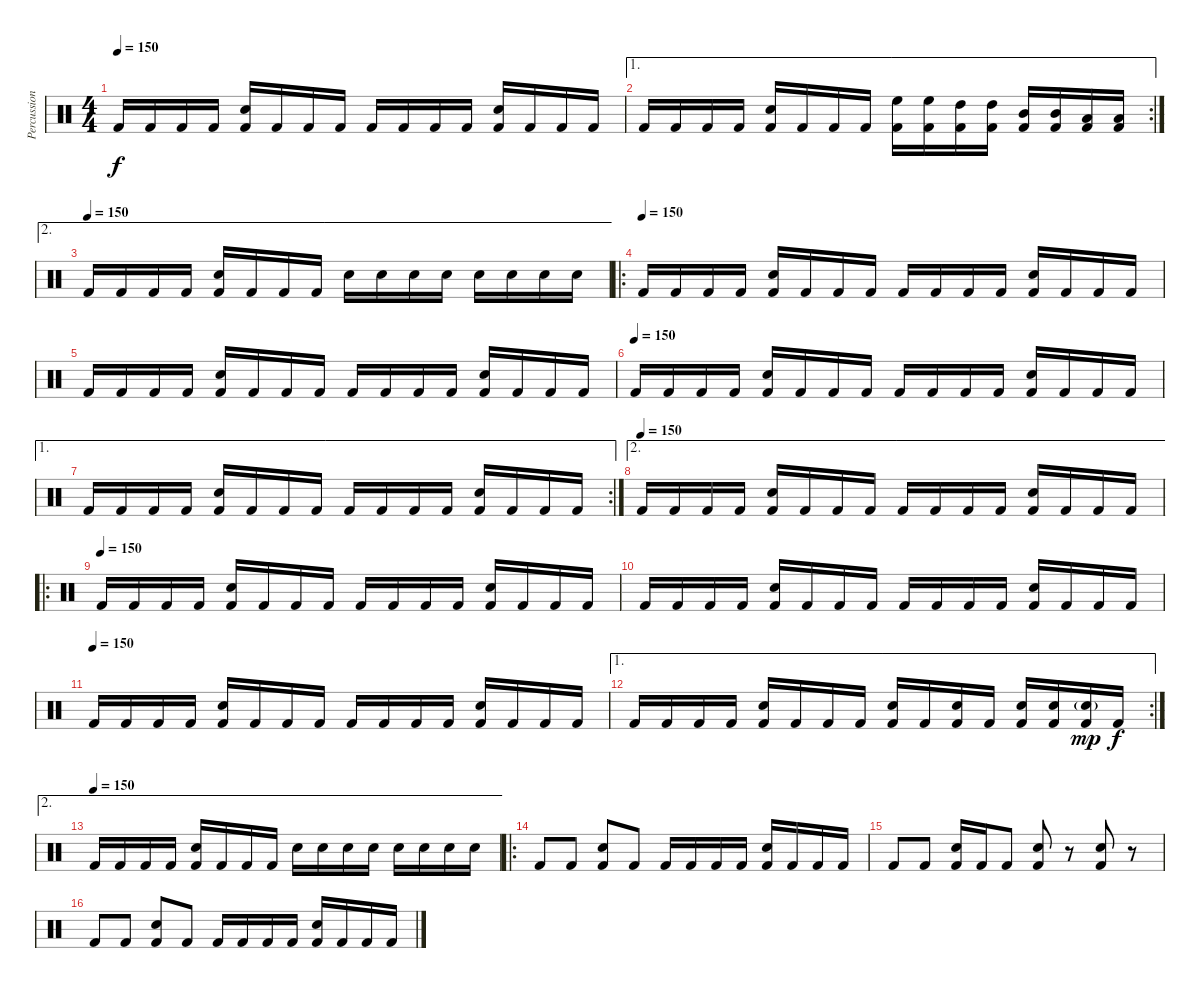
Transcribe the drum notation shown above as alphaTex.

\track ("Percussion" "Percussion") {instrument percussion}
\staff {score}
\articulation defaults
\ts (4 4)
\tempo 150
\clef neutral
\ks c "Kick (hit) 2".16{dy f} "Kick (hit) 2".16 "Kick (hit) 2".16 "Kick (hit) 2".16
("Snare (hit) 2" "Kick (hit) 2").16 "Kick (hit) 2".16 "Kick (hit) 2".16 "Kick (hit) 2".16 "Kick (hit) 2".16 "Kick (hit) 2".16 "Kick (hit) 2".16 "Kick (hit) 2".16 ("Snare (hit) 2" "Kick (hit) 2").16 "Kick (hit) 2".16 "Kick (hit) 2".16 "Kick (hit) 2".16 |
\ae 1
\rc 2 "Kick (hit) 2".16 "Kick (hit) 2".16 "Kick (hit) 2".16 "Kick (hit) 2".16
("Snare (hit) 2" "Kick (hit) 2").16 "Kick (hit) 2".16 "Kick (hit) 2".16 "Kick (hit) 2".16 ("High Floor Tom (hit)" "Kick (hit) 2").16 ("High Floor Tom (hit)" "Kick (hit) 2").16 ("High Tom (hit)" "Kick (hit) 2").16 ("High Tom (hit)" "Kick (hit) 2").16 ("Mid Tom (hit)" "Kick (hit) 2").16 ("Mid Tom (hit)" "Kick (hit) 2").16 ("Low Tom (hit)" "Kick (hit) 2").16 ("Low Tom (hit)" "Kick (hit) 2").16 |
\ae 2
\tempo (150)
"Kick (hit) 2".16 "Kick (hit) 2".16 "Kick (hit) 2".16 "Kick (hit) 2".16 ("Snare (hit) 2" "Kick (hit) 2").16 "Kick (hit) 2".16 "Kick (hit) 2".16 "Kick (hit) 2".16 "Snare (hit) 2".16 "Snare (hit) 2".16 "Snare (hit) 2".16 "Snare (hit) 2".16 "Snare (hit) 2".16 "Snare (hit) 2".16 "Snare (hit) 2".16 "Snare (hit) 2".16 |
\ro
\tempo (150)
"Kick (hit) 2".16 "Kick (hit) 2".16 "Kick (hit) 2".16 "Kick (hit) 2".16 ("Snare (hit) 2" "Kick (hit) 2").16 "Kick (hit) 2".16 "Kick (hit) 2".16 "Kick (hit) 2".16 "Kick (hit) 2".16 "Kick (hit) 2".16 "Kick (hit) 2".16 "Kick (hit) 2".16 ("Snare (hit) 2" "Kick (hit) 2").16 "Kick (hit) 2".16 "Kick (hit) 2".16 "Kick (hit) 2".16 |
"Kick (hit) 2".16 "Kick (hit) 2".16 "Kick (hit) 2".16 "Kick (hit) 2".16 ("Snare (hit) 2" "Kick (hit) 2").16 "Kick (hit) 2".16 "Kick (hit) 2".16 "Kick (hit) 2".16 "Kick (hit) 2".16 "Kick (hit) 2".16 "Kick (hit) 2".16 "Kick (hit) 2".16 ("Snare (hit) 2" "Kick (hit) 2").16 "Kick (hit) 2".16 "Kick (hit) 2".16 "Kick (hit) 2".16 |
\tempo (150)
"Kick (hit) 2".16 "Kick (hit) 2".16 "Kick (hit) 2".16 "Kick (hit) 2".16 ("Snare (hit) 2" "Kick (hit) 2").16 "Kick (hit) 2".16 "Kick (hit) 2".16 "Kick (hit) 2".16 "Kick (hit) 2".16 "Kick (hit) 2".16 "Kick (hit) 2".16 "Kick (hit) 2".16 ("Snare (hit) 2" "Kick (hit) 2").16 "Kick (hit) 2".16 "Kick (hit) 2".16 "Kick (hit) 2".16 |
\ae 1
\rc 2 "Kick (hit) 2".16 "Kick (hit) 2".16 "Kick (hit) 2".16 "Kick (hit) 2".16
("Snare (hit) 2" "Kick (hit) 2").16 "Kick (hit) 2".16 "Kick (hit) 2".16 "Kick (hit) 2".16 "Kick (hit) 2".16 "Kick (hit) 2".16 "Kick (hit) 2".16 "Kick (hit) 2".16 ("Snare (hit) 2" "Kick (hit) 2").16 "Kick (hit) 2".16 "Kick (hit) 2".16 "Kick (hit) 2".16 |
\ae 2
\tempo (150)
"Kick (hit) 2".16 "Kick (hit) 2".16 "Kick (hit) 2".16 "Kick (hit) 2".16 ("Snare (hit) 2" "Kick (hit) 2").16 "Kick (hit) 2".16 "Kick (hit) 2".16 "Kick (hit) 2".16 "Kick (hit) 2".16 "Kick (hit) 2".16 "Kick (hit) 2".16 "Kick (hit) 2".16 ("Snare (hit) 2" "Kick (hit) 2").16 "Kick (hit) 2".16 "Kick (hit) 2".16 "Kick (hit) 2".16 |
\ro
\tempo (150)
"Kick (hit) 2".16 "Kick (hit) 2".16 "Kick (hit) 2".16 "Kick (hit) 2".16 ("Snare (hit) 2" "Kick (hit) 2").16 "Kick (hit) 2".16 "Kick (hit) 2".16 "Kick (hit) 2".16 "Kick (hit) 2".16 "Kick (hit) 2".16 "Kick (hit) 2".16 "Kick (hit) 2".16 ("Snare (hit) 2" "Kick (hit) 2").16 "Kick (hit) 2".16 "Kick (hit) 2".16 "Kick (hit) 2".16 |
"Kick (hit) 2".16 "Kick (hit) 2".16 "Kick (hit) 2".16 "Kick (hit) 2".16 ("Snare (hit) 2" "Kick (hit) 2").16 "Kick (hit) 2".16 "Kick (hit) 2".16 "Kick (hit) 2".16 "Kick (hit) 2".16 "Kick (hit) 2".16 "Kick (hit) 2".16 "Kick (hit) 2".16 ("Snare (hit) 2" "Kick (hit) 2").16 "Kick (hit) 2".16 "Kick (hit) 2".16 "Kick (hit) 2".16 |
\tempo (150)
"Kick (hit) 2".16 "Kick (hit) 2".16 "Kick (hit) 2".16 "Kick (hit) 2".16 ("Snare (hit) 2" "Kick (hit) 2").16 "Kick (hit) 2".16 "Kick (hit) 2".16 "Kick (hit) 2".16 "Kick (hit) 2".16 "Kick (hit) 2".16 "Kick (hit) 2".16 "Kick (hit) 2".16 ("Snare (hit) 2" "Kick (hit) 2").16 "Kick (hit) 2".16 "Kick (hit) 2".16 "Kick (hit) 2".16 |
\ae 1
\rc 2 "Kick (hit) 2".16 "Kick (hit) 2".16 "Kick (hit) 2".16 "Kick (hit) 2".16
("Snare (hit) 2" "Kick (hit) 2").16 "Kick (hit) 2".16 "Kick (hit) 2".16 "Kick (hit) 2".16 ("Snare (hit) 2" "Kick (hit) 2").16 "Kick (hit) 2".16 ("Snare (hit) 2" "Kick (hit) 2").16 "Kick (hit) 2".16 ("Snare (hit) 2" "Kick (hit) 2").16 ("Snare (hit) 2" "Kick (hit) 2").16 ("Snare (hit) 2"{g} "Kick (hit) 2").16{dy mp} "Kick (hit) 2".16{dy f} |
\ae 2
\tempo (150)
"Kick (hit) 2".16 "Kick (hit) 2".16 "Kick (hit) 2".16 "Kick (hit) 2".16 ("Snare (hit) 2" "Kick (hit) 2").16 "Kick (hit) 2".16 "Kick (hit) 2".16 "Kick (hit) 2".16 "Snare (hit) 2".16 "Snare (hit) 2".16 "Snare (hit) 2".16 "Snare (hit) 2".16 "Snare (hit) 2".16 "Snare (hit) 2".16 "Snare (hit) 2".16 "Snare (hit) 2".16 |
\ro "Kick (hit) 2".8 "Kick (hit) 2".8
("Snare (hit) 2" "Kick (hit) 2").8 "Kick (hit) 2".8 "Kick (hit) 2".16 "Kick (hit) 2".16 "Kick (hit) 2".16 "Kick (hit) 2".16 ("Snare (hit) 2" "Kick (hit) 2").16 "Kick (hit) 2".16 "Kick (hit) 2".16 "Kick (hit) 2".16 |
"Kick (hit) 2".8 "Kick (hit) 2".8 ("Snare (hit) 2" "Kick (hit) 2").16 "Kick (hit) 2".16 "Kick (hit) 2".8 ("Snare (hit) 2" "Kick (hit) 2").8 r.8 ("Snare (hit) 2" "Kick (hit) 2").8 r.8 |
"Kick (hit) 2".8 "Kick (hit) 2".8 ("Snare (hit) 2" "Kick (hit) 2").8 "Kick (hit) 2".8 "Kick (hit) 2".16 "Kick (hit) 2".16 "Kick (hit) 2".16 "Kick (hit) 2".16 ("Snare (hit) 2" "Kick (hit) 2").16 "Kick (hit) 2".16 "Kick (hit) 2".16 "Kick (hit) 2".16
